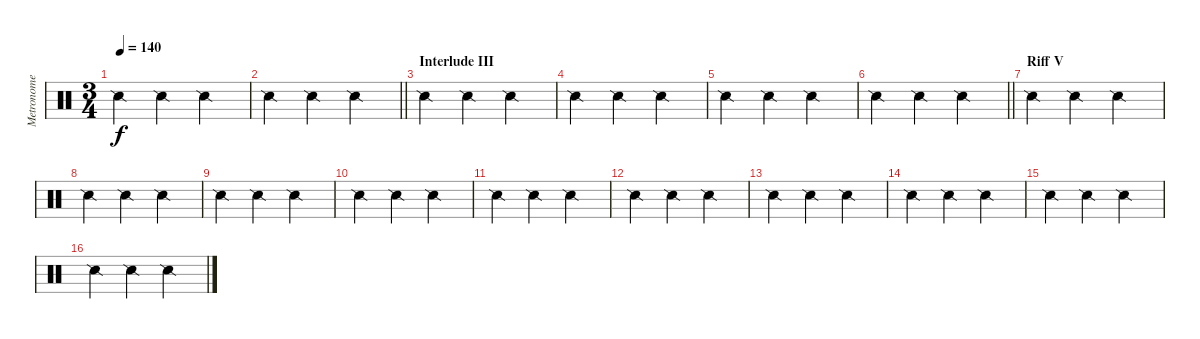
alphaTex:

\track ("Metronome" "Metronome") {instrument percussion}
\staff {score}
\articulation defaults
\ts (3 4)
\tempo 140
\clef neutral
\ks c "Snare (side stick) 2".4{dy f} "Snare (side stick) 2".4 "Snare (side stick) 2".4
|
\barLineRight lightlight "Snare (side stick) 2".4 "Snare (side stick) 2".4 "Snare (side stick) 2".4
|
\section ("" "Interlude III")
"Snare (side stick) 2".4 "Snare (side stick) 2".4 "Snare (side stick) 2".4 |
"Snare (side stick) 2".4 "Snare (side stick) 2".4 "Snare (side stick) 2".4 |
"Snare (side stick) 2".4 "Snare (side stick) 2".4 "Snare (side stick) 2".4 |
\barLineRight lightlight "Snare (side stick) 2".4 "Snare (side stick) 2".4 "Snare (side stick) 2".4
|
\section ("" "Riff V")
"Snare (side stick) 2".4 "Snare (side stick) 2".4 "Snare (side stick) 2".4 |
"Snare (side stick) 2".4 "Snare (side stick) 2".4 "Snare (side stick) 2".4 |
"Snare (side stick) 2".4 "Snare (side stick) 2".4 "Snare (side stick) 2".4 |
"Snare (side stick) 2".4 "Snare (side stick) 2".4 "Snare (side stick) 2".4 |
"Snare (side stick) 2".4 "Snare (side stick) 2".4 "Snare (side stick) 2".4 |
"Snare (side stick) 2".4 "Snare (side stick) 2".4 "Snare (side stick) 2".4 |
"Snare (side stick) 2".4 "Snare (side stick) 2".4 "Snare (side stick) 2".4 |
"Snare (side stick) 2".4 "Snare (side stick) 2".4 "Snare (side stick) 2".4 |
"Snare (side stick) 2".4 "Snare (side stick) 2".4 "Snare (side stick) 2".4 |
"Snare (side stick) 2".4 "Snare (side stick) 2".4 "Snare (side stick) 2".4
